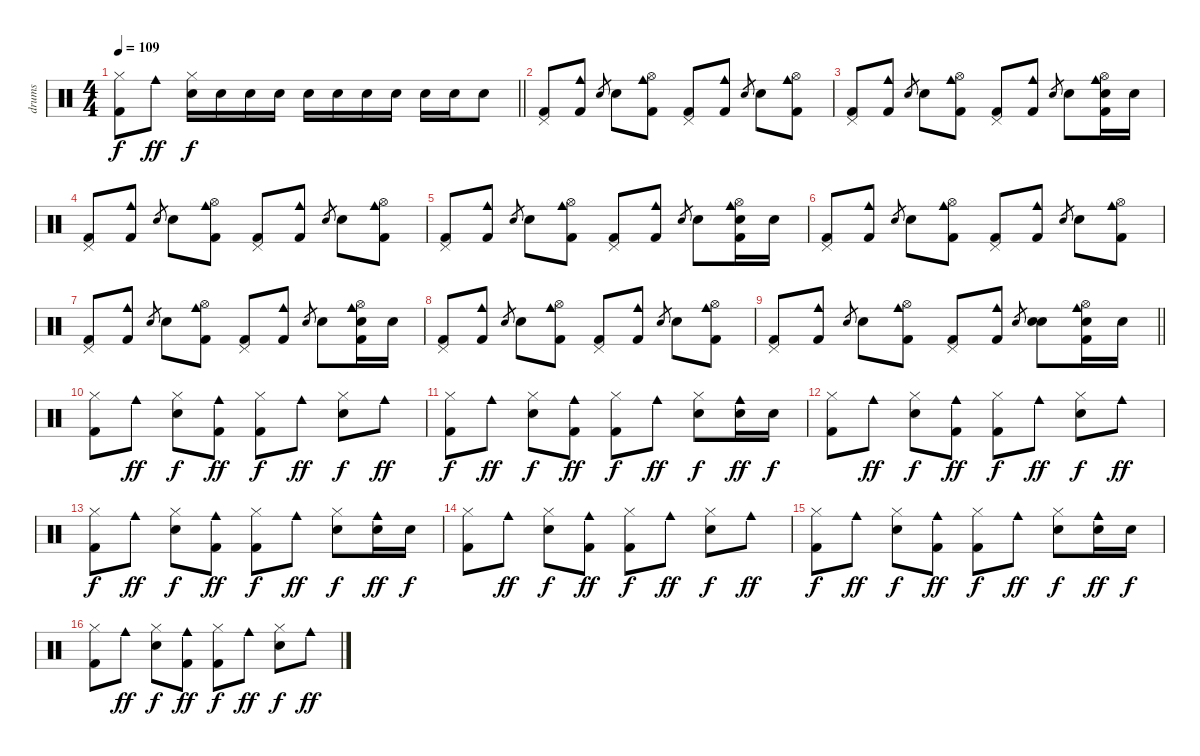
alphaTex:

\track ("drums" "drums") {instrument percussion}
\staff {score}
\articulation defaults
\ts (4 4)
\tempo 109
\clef neutral
\barLineRight lightlight
\ks aminor
("Hi-Hat (closed)" "Kick (hit) 2").8{dy f} "Cowbell medium (hit)".8{dy ff} ("Hi-Hat (closed)" "Snare (hit) 2").16{dy f} "Snare (hit) 2".16 "Snare (hit) 2".16 "Snare (hit) 2".16 "Snare (hit) 2".16 "Snare (hit) 2".16 "Snare (hit) 2".16 "Snare (hit) 2".16 "Snare (hit) 2".16 "Snare (hit) 2".16 "Snare (hit) 2".8 |
("Pedal Hi-Hat (hit)" "Kick (hit) 2").8 ("Cowbell medium (hit)" "Kick (hit) 2").8 "Hand Clap (hit)".8{gr} "Hand Clap (hit)".8 ("Hi-Hat (open)" "Cowbell medium (hit)" "Kick (hit) 2").8 ("Pedal Hi-Hat (hit)" "Kick (hit) 2").8 ("Cowbell medium (hit)" "Kick (hit) 2").8 "Hand Clap (hit)".8{gr} "Hand Clap (hit)".8 ("Hi-Hat (open)" "Cowbell medium (hit)" "Kick (hit) 2").8 |
("Pedal Hi-Hat (hit)" "Kick (hit) 2").8 ("Cowbell medium (hit)" "Kick (hit) 2").8 "Hand Clap (hit)".8{gr} "Hand Clap (hit)".8 ("Hi-Hat (open)" "Cowbell medium (hit)" "Kick (hit) 2").8 ("Pedal Hi-Hat (hit)" "Kick (hit) 2").8 ("Cowbell medium (hit)" "Kick (hit) 2").8 "Hand Clap (hit)".8{gr} "Hand Clap (hit)".8 ("Hi-Hat (open)" "Cowbell medium (hit)" "Snare (hit) 2" "Kick (hit) 2").16 "Snare (hit) 2".16 |
("Pedal Hi-Hat (hit)" "Kick (hit) 2").8 ("Cowbell medium (hit)" "Kick (hit) 2").8 "Hand Clap (hit)".8{gr} "Hand Clap (hit)".8 ("Hi-Hat (open)" "Cowbell medium (hit)" "Kick (hit) 2").8 ("Pedal Hi-Hat (hit)" "Kick (hit) 2").8 ("Cowbell medium (hit)" "Kick (hit) 2").8 "Hand Clap (hit)".8{gr} "Hand Clap (hit)".8 ("Hi-Hat (open)" "Cowbell medium (hit)" "Kick (hit) 2").8 |
("Pedal Hi-Hat (hit)" "Kick (hit) 2").8 ("Cowbell medium (hit)" "Kick (hit) 2").8 "Hand Clap (hit)".8{gr} "Hand Clap (hit)".8 ("Hi-Hat (open)" "Cowbell medium (hit)" "Kick (hit) 2").8 ("Pedal Hi-Hat (hit)" "Kick (hit) 2").8 ("Cowbell medium (hit)" "Kick (hit) 2").8 "Hand Clap (hit)".8{gr} "Hand Clap (hit)".8 ("Hi-Hat (open)" "Cowbell medium (hit)" "Snare (hit) 2" "Kick (hit) 2").16 "Snare (hit) 2".16 |
("Pedal Hi-Hat (hit)" "Kick (hit) 2").8 ("Cowbell medium (hit)" "Kick (hit) 2").8 "Hand Clap (hit)".8{gr} "Hand Clap (hit)".8 ("Hi-Hat (open)" "Cowbell medium (hit)" "Kick (hit) 2").8 ("Pedal Hi-Hat (hit)" "Kick (hit) 2").8 ("Cowbell medium (hit)" "Kick (hit) 2").8 "Hand Clap (hit)".8{gr} "Hand Clap (hit)".8 ("Hi-Hat (open)" "Cowbell medium (hit)" "Kick (hit) 2").8 |
("Pedal Hi-Hat (hit)" "Kick (hit) 2").8 ("Cowbell medium (hit)" "Kick (hit) 2").8 "Hand Clap (hit)".8{gr} "Hand Clap (hit)".8 ("Hi-Hat (open)" "Cowbell medium (hit)" "Kick (hit) 2").8 ("Pedal Hi-Hat (hit)" "Kick (hit) 2").8 ("Cowbell medium (hit)" "Kick (hit) 2").8 "Hand Clap (hit)".8{gr} "Hand Clap (hit)".8 ("Hi-Hat (open)" "Cowbell medium (hit)" "Snare (hit) 2" "Kick (hit) 2").16 "Snare (hit) 2".16 |
("Pedal Hi-Hat (hit)" "Kick (hit) 2").8 ("Cowbell medium (hit)" "Kick (hit) 2").8 "Hand Clap (hit)".8{gr} "Hand Clap (hit)".8 ("Hi-Hat (open)" "Cowbell medium (hit)" "Kick (hit) 2").8 ("Pedal Hi-Hat (hit)" "Kick (hit) 2").8 ("Cowbell medium (hit)" "Kick (hit) 2").8 "Hand Clap (hit)".8{gr} "Hand Clap (hit)".8 ("Hi-Hat (open)" "Cowbell medium (hit)" "Kick (hit) 2").8 |
\barLineRight lightlight
("Pedal Hi-Hat (hit)" "Kick (hit) 2").8 ("Cowbell medium (hit)" "Kick (hit) 2").8 "Hand Clap (hit)".8{gr} "Hand Clap (hit)".8 ("Hi-Hat (open)" "Cowbell medium (hit)" "Kick (hit) 2").8 ("Pedal Hi-Hat (hit)" "Kick (hit) 2").8 ("Cowbell medium (hit)" "Kick (hit) 2").8 "Hand Clap (hit)".8{gr} ("Hand Clap (hit)" "Snare (hit) 2").8 ("Hi-Hat (open)" "Cowbell medium (hit)" "Snare (hit) 2" "Kick (hit) 2").16 "Snare (hit) 2".16 |
("Hi-Hat (closed)" "Kick (hit) 2").8 "Cowbell medium (hit)".8{dy ff} ("Hi-Hat (closed)" "Snare (hit) 2").8{dy f} ("Cowbell medium (hit)" "Kick (hit) 2").8{dy ff} ("Hi-Hat (closed)" "Kick (hit) 2").8{dy f} "Cowbell medium (hit)".8{dy ff} ("Hi-Hat (closed)" "Snare (hit) 2").8{dy f} "Cowbell medium (hit)".8{dy ff} |
("Hi-Hat (closed)" "Kick (hit) 2").8{dy f} "Cowbell medium (hit)".8{dy ff} ("Hi-Hat (closed)" "Snare (hit) 2").8{dy f} ("Cowbell medium (hit)" "Kick (hit) 2").8{dy ff} ("Hi-Hat (closed)" "Kick (hit) 2").8{dy f} "Cowbell medium (hit)".8{dy ff} ("Hi-Hat (closed)" "Snare (hit) 2").8{dy f} ("Cowbell medium (hit)" "Snare (hit) 2").16{dy ff} "Snare (hit) 2".16{dy f} |
("Hi-Hat (closed)" "Kick (hit) 2").8 "Cowbell medium (hit)".8{dy ff} ("Hi-Hat (closed)" "Snare (hit) 2").8{dy f} ("Cowbell medium (hit)" "Kick (hit) 2").8{dy ff} ("Hi-Hat (closed)" "Kick (hit) 2").8{dy f} "Cowbell medium (hit)".8{dy ff} ("Hi-Hat (closed)" "Snare (hit) 2").8{dy f} "Cowbell medium (hit)".8{dy ff} |
("Hi-Hat (closed)" "Kick (hit) 2").8{dy f} "Cowbell medium (hit)".8{dy ff} ("Hi-Hat (closed)" "Snare (hit) 2").8{dy f} ("Cowbell medium (hit)" "Kick (hit) 2").8{dy ff} ("Hi-Hat (closed)" "Kick (hit) 2").8{dy f} "Cowbell medium (hit)".8{dy ff} ("Hi-Hat (closed)" "Snare (hit) 2").8{dy f} ("Cowbell medium (hit)" "Snare (hit) 2").16{dy ff} "Snare (hit) 2".16{dy f} |
("Hi-Hat (closed)" "Kick (hit) 2").8 "Cowbell medium (hit)".8{dy ff} ("Hi-Hat (closed)" "Snare (hit) 2").8{dy f} ("Cowbell medium (hit)" "Kick (hit) 2").8{dy ff} ("Hi-Hat (closed)" "Kick (hit) 2").8{dy f} "Cowbell medium (hit)".8{dy ff} ("Hi-Hat (closed)" "Snare (hit) 2").8{dy f} "Cowbell medium (hit)".8{dy ff} |
("Hi-Hat (closed)" "Kick (hit) 2").8{dy f} "Cowbell medium (hit)".8{dy ff} ("Hi-Hat (closed)" "Snare (hit) 2").8{dy f} ("Cowbell medium (hit)" "Kick (hit) 2").8{dy ff} ("Hi-Hat (closed)" "Kick (hit) 2").8{dy f} "Cowbell medium (hit)".8{dy ff} ("Hi-Hat (closed)" "Snare (hit) 2").8{dy f} ("Cowbell medium (hit)" "Snare (hit) 2").16{dy ff} "Snare (hit) 2".16{dy f} |
("Hi-Hat (closed)" "Kick (hit) 2").8 "Cowbell medium (hit)".8{dy ff} ("Hi-Hat (closed)" "Snare (hit) 2").8{dy f} ("Cowbell medium (hit)" "Kick (hit) 2").8{dy ff} ("Hi-Hat (closed)" "Kick (hit) 2").8{dy f} "Cowbell medium (hit)".8{dy ff} ("Hi-Hat (closed)" "Snare (hit) 2").8{dy f} "Cowbell medium (hit)".8{dy ff}
